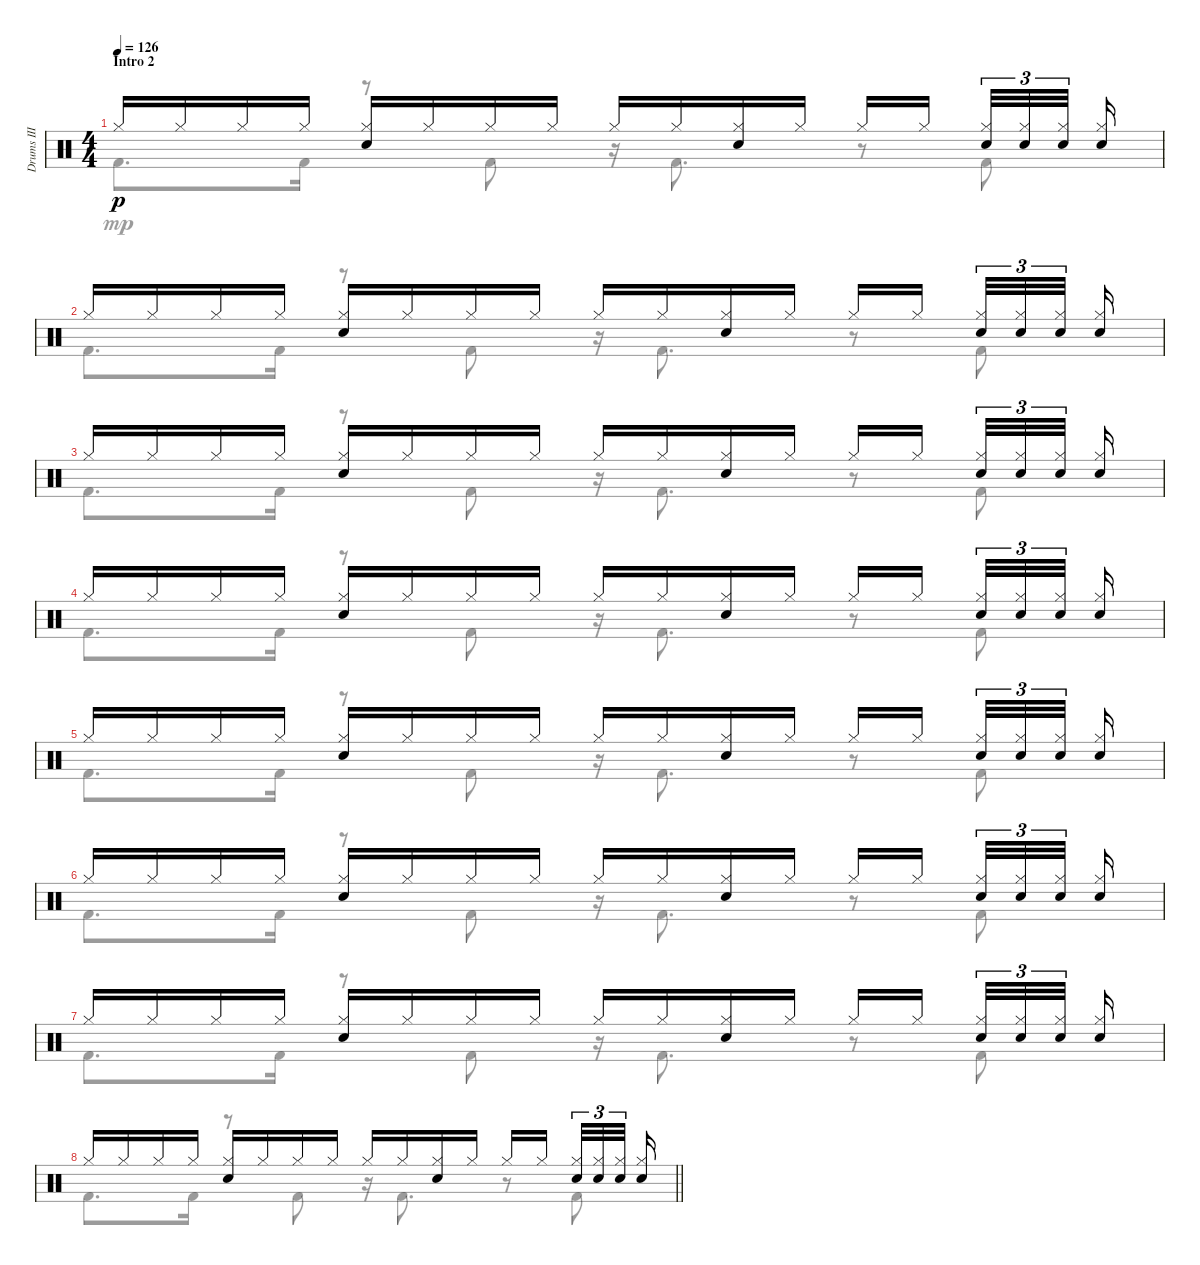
\track ("Drums III" "Drums III") {instrument percussion}
\staff {score}
\articulation defaults
\voice
\ts (4 4)
\section ("" "Intro 2")
\tempo 126
\clef neutral
\ks c "Hi-Hat (closed)".16{dy p} "Hi-Hat (closed)".16 "Hi-Hat (closed)".16 "Hi-Hat (closed)".16
("Hi-Hat (closed)" "Electric Snare (hit)").16 "Hi-Hat (closed)".16 "Hi-Hat (closed)".16 "Hi-Hat (closed)".16 "Hi-Hat (closed)".16 "Hi-Hat (closed)".16 ("Hi-Hat (closed)" "Electric Snare (hit)").16 "Hi-Hat (closed)".16 "Hi-Hat (closed)".16 "Hi-Hat (closed)".16{beam splitsecondary} ("Hi-Hat (closed)" "Electric Snare (hit)").32{tu (3 2)} ("Hi-Hat (closed)" "Electric Snare (hit)").32{tu (3 2)} ("Hi-Hat (closed)" "Electric Snare (hit)").32{tu (3 2) beam splitsecondary} ("Hi-Hat (closed)" "Electric Snare (hit)").16 |
"Hi-Hat (closed)".16 "Hi-Hat (closed)".16 "Hi-Hat (closed)".16 "Hi-Hat (closed)".16 ("Hi-Hat (closed)" "Electric Snare (hit)").16 "Hi-Hat (closed)".16 "Hi-Hat (closed)".16 "Hi-Hat (closed)".16 "Hi-Hat (closed)".16 "Hi-Hat (closed)".16 ("Hi-Hat (closed)" "Electric Snare (hit)").16 "Hi-Hat (closed)".16 "Hi-Hat (closed)".16 "Hi-Hat (closed)".16{beam splitsecondary} ("Hi-Hat (closed)" "Electric Snare (hit)").32{tu (3 2)} ("Hi-Hat (closed)" "Electric Snare (hit)").32{tu (3 2)} ("Hi-Hat (closed)" "Electric Snare (hit)").32{tu (3 2) beam splitsecondary} ("Hi-Hat (closed)" "Electric Snare (hit)").16 |
"Hi-Hat (closed)".16 "Hi-Hat (closed)".16 "Hi-Hat (closed)".16 "Hi-Hat (closed)".16 ("Hi-Hat (closed)" "Electric Snare (hit)").16 "Hi-Hat (closed)".16 "Hi-Hat (closed)".16 "Hi-Hat (closed)".16 "Hi-Hat (closed)".16 "Hi-Hat (closed)".16 ("Hi-Hat (closed)" "Electric Snare (hit)").16 "Hi-Hat (closed)".16 "Hi-Hat (closed)".16 "Hi-Hat (closed)".16{beam splitsecondary} ("Hi-Hat (closed)" "Electric Snare (hit)").32{tu (3 2)} ("Hi-Hat (closed)" "Electric Snare (hit)").32{tu (3 2)} ("Hi-Hat (closed)" "Electric Snare (hit)").32{tu (3 2) beam splitsecondary} ("Hi-Hat (closed)" "Electric Snare (hit)").16 |
"Hi-Hat (closed)".16 "Hi-Hat (closed)".16 "Hi-Hat (closed)".16 "Hi-Hat (closed)".16 ("Hi-Hat (closed)" "Electric Snare (hit)").16 "Hi-Hat (closed)".16 "Hi-Hat (closed)".16 "Hi-Hat (closed)".16 "Hi-Hat (closed)".16 "Hi-Hat (closed)".16 ("Hi-Hat (closed)" "Electric Snare (hit)").16 "Hi-Hat (closed)".16 "Hi-Hat (closed)".16 "Hi-Hat (closed)".16{beam splitsecondary} ("Hi-Hat (closed)" "Electric Snare (hit)").32{tu (3 2)} ("Hi-Hat (closed)" "Electric Snare (hit)").32{tu (3 2)} ("Hi-Hat (closed)" "Electric Snare (hit)").32{tu (3 2) beam splitsecondary} ("Hi-Hat (closed)" "Electric Snare (hit)").16 |
"Hi-Hat (closed)".16 "Hi-Hat (closed)".16 "Hi-Hat (closed)".16 "Hi-Hat (closed)".16 ("Hi-Hat (closed)" "Electric Snare (hit)").16 "Hi-Hat (closed)".16 "Hi-Hat (closed)".16 "Hi-Hat (closed)".16 "Hi-Hat (closed)".16 "Hi-Hat (closed)".16 ("Hi-Hat (closed)" "Electric Snare (hit)").16 "Hi-Hat (closed)".16 "Hi-Hat (closed)".16 "Hi-Hat (closed)".16{beam splitsecondary} ("Hi-Hat (closed)" "Electric Snare (hit)").32{tu (3 2)} ("Hi-Hat (closed)" "Electric Snare (hit)").32{tu (3 2)} ("Hi-Hat (closed)" "Electric Snare (hit)").32{tu (3 2) beam splitsecondary} ("Hi-Hat (closed)" "Electric Snare (hit)").16 |
"Hi-Hat (closed)".16 "Hi-Hat (closed)".16 "Hi-Hat (closed)".16 "Hi-Hat (closed)".16 ("Hi-Hat (closed)" "Electric Snare (hit)").16 "Hi-Hat (closed)".16 "Hi-Hat (closed)".16 "Hi-Hat (closed)".16 "Hi-Hat (closed)".16 "Hi-Hat (closed)".16 ("Hi-Hat (closed)" "Electric Snare (hit)").16 "Hi-Hat (closed)".16 "Hi-Hat (closed)".16 "Hi-Hat (closed)".16{beam splitsecondary} ("Hi-Hat (closed)" "Electric Snare (hit)").32{tu (3 2)} ("Hi-Hat (closed)" "Electric Snare (hit)").32{tu (3 2)} ("Hi-Hat (closed)" "Electric Snare (hit)").32{tu (3 2) beam splitsecondary} ("Hi-Hat (closed)" "Electric Snare (hit)").16 |
"Hi-Hat (closed)".16 "Hi-Hat (closed)".16 "Hi-Hat (closed)".16 "Hi-Hat (closed)".16 ("Hi-Hat (closed)" "Electric Snare (hit)").16 "Hi-Hat (closed)".16 "Hi-Hat (closed)".16 "Hi-Hat (closed)".16 "Hi-Hat (closed)".16 "Hi-Hat (closed)".16 ("Hi-Hat (closed)" "Electric Snare (hit)").16 "Hi-Hat (closed)".16 "Hi-Hat (closed)".16 "Hi-Hat (closed)".16{beam splitsecondary} ("Hi-Hat (closed)" "Electric Snare (hit)").32{tu (3 2)} ("Hi-Hat (closed)" "Electric Snare (hit)").32{tu (3 2)} ("Hi-Hat (closed)" "Electric Snare (hit)").32{tu (3 2) beam splitsecondary} ("Hi-Hat (closed)" "Electric Snare (hit)").16 |
\barLineRight lightlight "Hi-Hat (closed)".16 "Hi-Hat (closed)".16 "Hi-Hat (closed)".16 "Hi-Hat (closed)".16
("Hi-Hat (closed)" "Electric Snare (hit)").16 "Hi-Hat (closed)".16 "Hi-Hat (closed)".16 "Hi-Hat (closed)".16 "Hi-Hat (closed)".16 "Hi-Hat (closed)".16 ("Hi-Hat (closed)" "Electric Snare (hit)").16 "Hi-Hat (closed)".16 "Hi-Hat (closed)".16 "Hi-Hat (closed)".16{beam splitsecondary} ("Hi-Hat (closed)" "Electric Snare (hit)").32{tu (3 2)} ("Hi-Hat (closed)" "Electric Snare (hit)").32{tu (3 2)} ("Hi-Hat (closed)" "Electric Snare (hit)").32{tu (3 2) beam splitsecondary} ("Hi-Hat (closed)" "Electric Snare (hit)").16
\voice
\clef neutral
\ottava regular
\simile none
\ks c "Kick (hit) 2".8{d dy mp} "Kick (hit) 2".16
r.8 "Kick (hit) 2".8 r.16 "Kick (hit) 2".8{d} r.8 "Kick (hit) 2".8 |
"Kick (hit) 2".8{d} "Kick (hit) 2".16 r.8 "Kick (hit) 2".8 r.16 "Kick (hit) 2".8{d} r.8 "Kick (hit) 2".8 |
"Kick (hit) 2".8{d} "Kick (hit) 2".16 r.8 "Kick (hit) 2".8 r.16 "Kick (hit) 2".8{d} r.8 "Kick (hit) 2".8 |
"Kick (hit) 2".8{d} "Kick (hit) 2".16 r.8 "Kick (hit) 2".8 r.16 "Kick (hit) 2".8{d} r.8 "Kick (hit) 2".8 |
"Kick (hit) 2".8{d} "Kick (hit) 2".16 r.8 "Kick (hit) 2".8 r.16 "Kick (hit) 2".8{d} r.8 "Kick (hit) 2".8 |
"Kick (hit) 2".8{d} "Kick (hit) 2".16 r.8 "Kick (hit) 2".8 r.16 "Kick (hit) 2".8{d} r.8 "Kick (hit) 2".8 |
"Kick (hit) 2".8{d} "Kick (hit) 2".16 r.8 "Kick (hit) 2".8 r.16 "Kick (hit) 2".8{d} r.8 "Kick (hit) 2".8 |
\barLineRight lightlight "Kick (hit) 2".8{d} "Kick (hit) 2".16
r.8 "Kick (hit) 2".8 r.16 "Kick (hit) 2".8{d} r.8 "Kick (hit) 2".8
